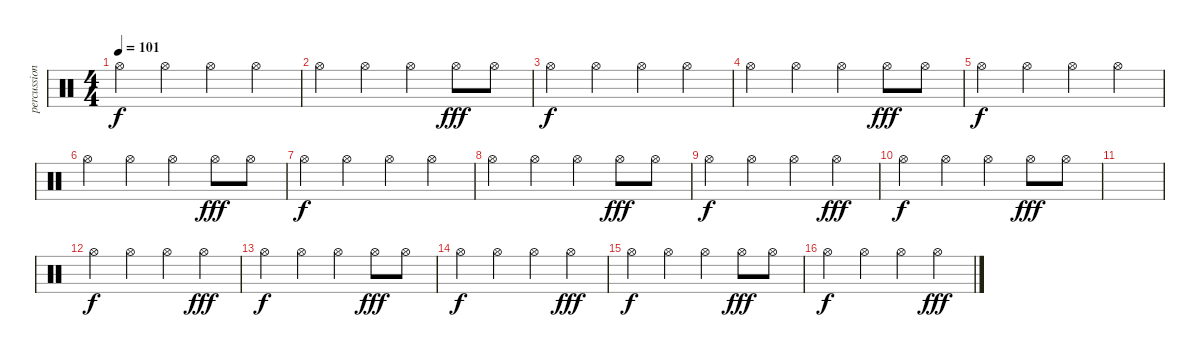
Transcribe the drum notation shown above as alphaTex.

\track ("percussion" "percussion") {instrument percussion}
\staff {score}
\articulation defaults
\ts (4 4)
\tempo 101
\clef neutral
\ks c "Hi-Hat (open)".4{dy f} "Hi-Hat (open)".4 "Hi-Hat (open)".4 "Hi-Hat (open)".4
|
"Hi-Hat (open)".4 "Hi-Hat (open)".4 "Hi-Hat (open)".4 "Hi-Hat (open)".8{dy fff} "Hi-Hat (open)".8 |
"Hi-Hat (open)".4{dy f} "Hi-Hat (open)".4 "Hi-Hat (open)".4 "Hi-Hat (open)".4 |
"Hi-Hat (open)".4 "Hi-Hat (open)".4 "Hi-Hat (open)".4 "Hi-Hat (open)".8{dy fff} "Hi-Hat (open)".8 |
"Hi-Hat (open)".4{dy f} "Hi-Hat (open)".4 "Hi-Hat (open)".4 "Hi-Hat (open)".4 |
"Hi-Hat (open)".4 "Hi-Hat (open)".4 "Hi-Hat (open)".4 "Hi-Hat (open)".8{dy fff} "Hi-Hat (open)".8 |
"Hi-Hat (open)".4{dy f} "Hi-Hat (open)".4 "Hi-Hat (open)".4 "Hi-Hat (open)".4 |
"Hi-Hat (open)".4 "Hi-Hat (open)".4 "Hi-Hat (open)".4 "Hi-Hat (open)".8{dy fff} "Hi-Hat (open)".8 |
"Hi-Hat (open)".4{dy f} "Hi-Hat (open)".4 "Hi-Hat (open)".4 "Hi-Hat (open)".4{dy fff} |
"Hi-Hat (open)".4{dy f} "Hi-Hat (open)".4 "Hi-Hat (open)".4 "Hi-Hat (open)".8{dy fff} "Hi-Hat (open)".8 |
|
"Hi-Hat (open)".4{dy f} "Hi-Hat (open)".4 "Hi-Hat (open)".4 "Hi-Hat (open)".4{dy fff} |
"Hi-Hat (open)".4{dy f} "Hi-Hat (open)".4 "Hi-Hat (open)".4 "Hi-Hat (open)".8{dy fff} "Hi-Hat (open)".8 |
"Hi-Hat (open)".4{dy f} "Hi-Hat (open)".4 "Hi-Hat (open)".4 "Hi-Hat (open)".4{dy fff} |
"Hi-Hat (open)".4{dy f} "Hi-Hat (open)".4 "Hi-Hat (open)".4 "Hi-Hat (open)".8{dy fff} "Hi-Hat (open)".8 |
"Hi-Hat (open)".4{dy f} "Hi-Hat (open)".4 "Hi-Hat (open)".4 "Hi-Hat (open)".4{dy fff}
